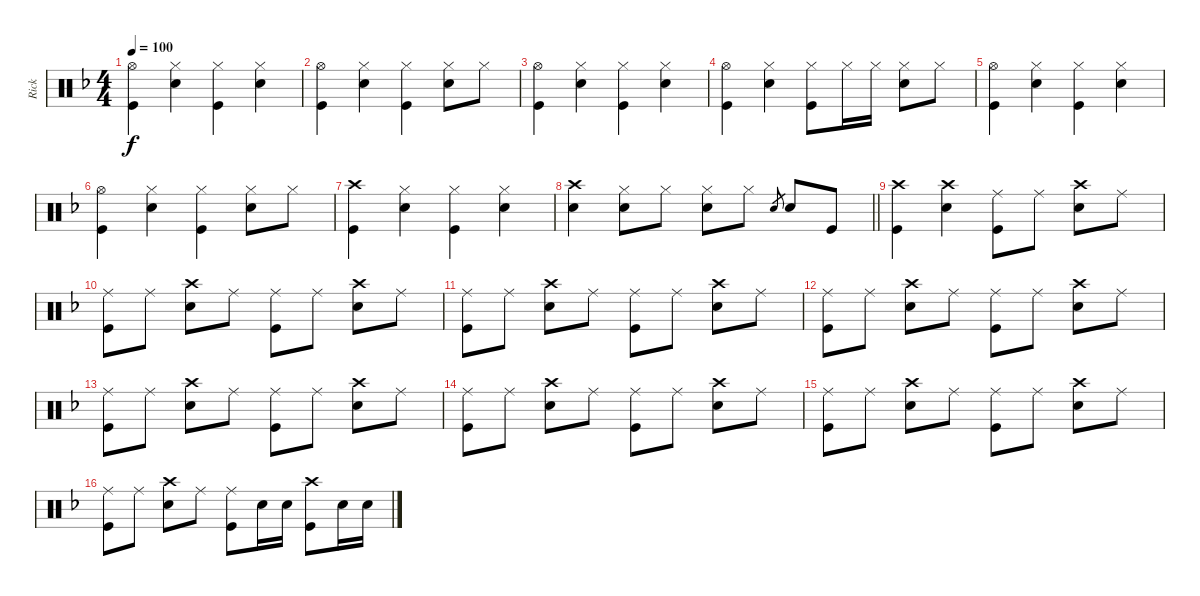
\track ("Rick" "Rick") {instrument percussion}
\staff {score}
\articulation defaults
\ts (4 4)
\tempo 100
\clef neutral
\ks dminor
("Hi-Hat (open)" "Kick (hit)").4{dy f} ("Hi-Hat (closed)" "Snare (hit) 2").4 ("Hi-Hat (closed)" "Kick (hit)").4 ("Hi-Hat (closed)" "Snare (hit) 2").4 |
("Hi-Hat (open)" "Kick (hit)").4 ("Hi-Hat (closed)" "Snare (hit) 2").4 ("Hi-Hat (closed)" "Kick (hit)").4 ("Hi-Hat (closed)" "Snare (hit) 2").8 "Hi-Hat (closed)".8 |
("Hi-Hat (open)" "Kick (hit)").4 ("Hi-Hat (closed)" "Snare (hit) 2").4 ("Hi-Hat (closed)" "Kick (hit)").4 ("Hi-Hat (closed)" "Snare (hit) 2").4 |
("Hi-Hat (open)" "Kick (hit)").4 ("Hi-Hat (closed)" "Snare (hit) 2").4 ("Hi-Hat (closed)" "Kick (hit)").8 "Hi-Hat (closed)".16 "Hi-Hat (closed)".16 ("Hi-Hat (closed)" "Snare (hit) 2").8 "Hi-Hat (closed)".8 |
("Hi-Hat (open)" "Kick (hit)").4 ("Hi-Hat (closed)" "Snare (hit) 2").4 ("Hi-Hat (closed)" "Kick (hit)").4 ("Hi-Hat (closed)" "Snare (hit) 2").4 |
("Hi-Hat (open)" "Kick (hit)").4 ("Hi-Hat (closed)" "Snare (hit) 2").4 ("Hi-Hat (closed)" "Kick (hit)").4 ("Hi-Hat (closed)" "Snare (hit) 2").8 "Hi-Hat (closed)".8 |
("Crash high (hit)" "Kick (hit)").4 ("Hi-Hat (closed)" "Snare (hit) 2").4 ("Hi-Hat (closed)" "Kick (hit)").4 ("Hi-Hat (closed)" "Snare (hit) 2").4 |
\barLineRight lightlight
("Crash high (hit)" "Snare (hit) 2").4 ("Hi-Hat (closed)" "Snare (hit) 2").8 "Hi-Hat (closed)".8 ("Hi-Hat (closed)" "Snare (hit) 2").8 "Hi-Hat (closed)".8 "Snare (hit) 2".8{gr} "Snare (hit) 2".8 "Kick (hit)".8 |
("Crash high (hit)" "Kick (hit)").4 ("Crash high (hit)" "Snare (hit) 2").4 ("Ride (middle)" "Kick (hit)").8 "Ride (middle)".8 ("Crash high (hit)" "Snare (hit) 2").8 "Ride (middle)".8 |
("Ride (middle)" "Kick (hit)").8 "Ride (middle)".8 ("Crash high (hit)" "Snare (hit) 2").8 "Ride (middle)".8 ("Ride (middle)" "Kick (hit)").8 "Ride (middle)".8 ("Crash high (hit)" "Snare (hit) 2").8 "Ride (middle)".8 |
("Ride (middle)" "Kick (hit)").8 "Ride (middle)".8 ("Crash high (hit)" "Snare (hit) 2").8 "Ride (middle)".8 ("Ride (middle)" "Kick (hit)").8 "Ride (middle)".8 ("Crash high (hit)" "Snare (hit) 2").8 "Ride (middle)".8 |
("Ride (middle)" "Kick (hit)").8 "Ride (middle)".8 ("Crash high (hit)" "Snare (hit) 2").8 "Ride (middle)".8 ("Ride (middle)" "Kick (hit)").8 "Ride (middle)".8 ("Crash high (hit)" "Snare (hit) 2").8 "Ride (middle)".8 |
("Ride (middle)" "Kick (hit)").8 "Ride (middle)".8 ("Crash high (hit)" "Snare (hit) 2").8 "Ride (middle)".8 ("Ride (middle)" "Kick (hit)").8 "Ride (middle)".8 ("Crash high (hit)" "Snare (hit) 2").8 "Ride (middle)".8 |
("Ride (middle)" "Kick (hit)").8 "Ride (middle)".8 ("Crash high (hit)" "Snare (hit) 2").8 "Ride (middle)".8 ("Ride (middle)" "Kick (hit)").8 "Ride (middle)".8 ("Crash high (hit)" "Snare (hit) 2").8 "Ride (middle)".8 |
("Ride (middle)" "Kick (hit)").8 "Ride (middle)".8 ("Crash high (hit)" "Snare (hit) 2").8 "Ride (middle)".8 ("Ride (middle)" "Kick (hit)").8 "Ride (middle)".8 ("Crash high (hit)" "Snare (hit) 2").8 "Ride (middle)".8 |
("Ride (middle)" "Kick (hit)").8 "Ride (middle)".8 ("Crash high (hit)" "Snare (hit) 2").8 "Ride (middle)".8 ("Ride (middle)" "Kick (hit)").8 "Snare (hit) 2".16 "Snare (hit) 2".16 ("Crash high (hit)" "Kick (hit)").8 "Snare (hit) 2".16 "Snare (hit) 2".16
